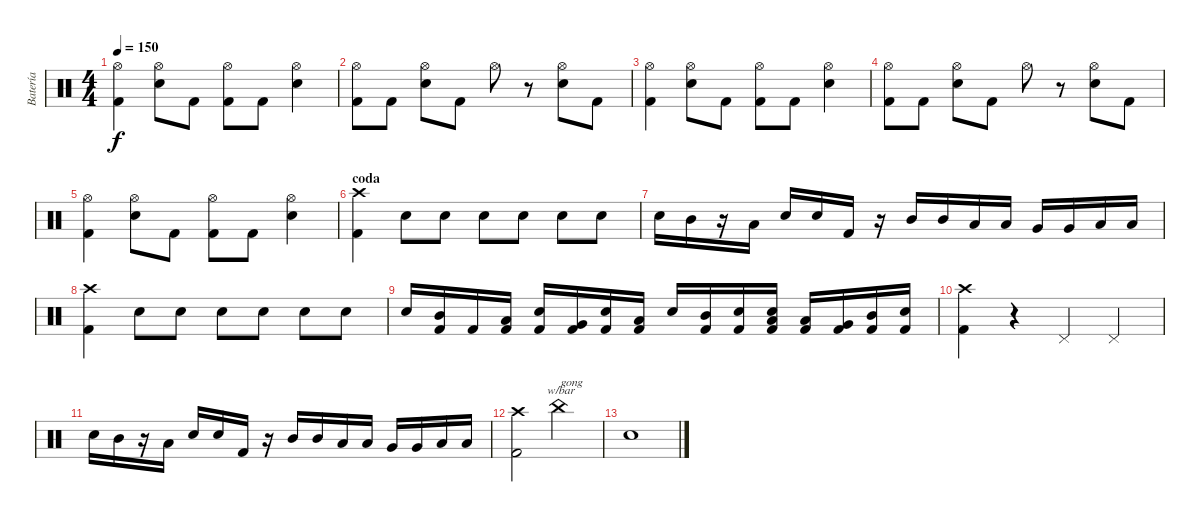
\track ("Batería" "Batería") {instrument percussion}
\staff {score}
\articulation defaults
\ts (4 4)
\tempo 150
\clef neutral
\ks c
("Hi-Hat (open)" "Kick (hit) 2").4{dy f} ("Hi-Hat (open)" "Electric Snare (hit)").8 "Kick (hit) 2".8 ("Hi-Hat (open)" "Kick (hit) 2").8 "Kick (hit) 2".8 ("Hi-Hat (open)" "Electric Snare (hit)").4 |
("Hi-Hat (open)" "Kick (hit) 2").8 "Kick (hit) 2".8 ("Hi-Hat (open)" "Electric Snare (hit)").8 "Kick (hit) 2".8 "Hi-Hat (open)".8 r.8 ("Hi-Hat (open)" "Electric Snare (hit)").8 "Kick (hit) 2".8 |
("Hi-Hat (open)" "Kick (hit) 2").4 ("Hi-Hat (open)" "Electric Snare (hit)").8 "Kick (hit) 2".8 ("Hi-Hat (open)" "Kick (hit) 2").8 "Kick (hit) 2".8 ("Hi-Hat (open)" "Electric Snare (hit)").4 |
("Hi-Hat (open)" "Kick (hit) 2").8 "Kick (hit) 2".8 ("Hi-Hat (open)" "Electric Snare (hit)").8 "Kick (hit) 2".8 "Hi-Hat (open)".8 r.8 ("Hi-Hat (open)" "Electric Snare (hit)").8 "Kick (hit) 2".8 |
("Hi-Hat (open)" "Kick (hit) 2").4 ("Hi-Hat (open)" "Electric Snare (hit)").8 "Kick (hit) 2".8 ("Hi-Hat (open)" "Kick (hit) 2").8 "Kick (hit) 2".8 ("Hi-Hat (open)" "Electric Snare (hit)").4 |
\section ("" "coda")
("Crash high (hit)" "Kick (hit) 2").4 "Electric Snare (hit)".8 "Electric Snare (hit)".8 "Electric Snare (hit)".8 "Electric Snare (hit)".8 "Electric Snare (hit)".8 "Electric Snare (hit)".8 |
"Electric Snare (hit)".16 "Mid Tom (hit)".16 r.16 "Low Tom (hit)".16 "Electric Snare (hit)".16 "Electric Snare (hit)".16 "Kick (hit) 2".16 r.16 "Mid Tom (hit)".16 "Mid Tom (hit)".16 "Low Tom (hit)".16 "Low Tom (hit)".16 "Very Low Tom (hit)".16 "Very Low Tom (hit)".16 "Low Floor Tom (hit)".16 "Low Floor Tom (hit)".16 |
("Crash high (hit)" "Kick (hit) 2").4 "Electric Snare (hit)".8 "Electric Snare (hit)".8 "Electric Snare (hit)".8 "Electric Snare (hit)".8 "Electric Snare (hit)".8 "Electric Snare (hit)".8 |
"Electric Snare (hit)".16 ("Kick (hit) 2" "Mid Tom (hit)").16 "Kick (hit) 2".16 ("Kick (hit) 2" "Low Tom (hit)").16 ("Kick (hit) 2" "Electric Snare (hit)").16 ("Kick (hit) 2" "Very Low Tom (hit)").16 ("Kick (hit) 2" "Electric Snare (hit)").16 ("Kick (hit) 2" "Low Tom (hit)").16 "Electric Snare (hit)".16 ("Kick (hit) 2" "Mid Tom (hit)").16 ("Kick (hit) 2" "Electric Snare (hit)").16 ("Kick (hit) 2" "Low Tom (hit)" "Electric Snare (hit)").16 ("Kick (hit) 2" "Low Tom (hit)").16 ("Kick (hit) 2" "Very Low Tom (hit)").16 ("Kick (hit) 2" "Mid Tom (hit)").16 ("Kick (hit) 2" "Electric Snare (hit)").16 |
("Crash high (hit)" "Kick (hit) 2").4 r.4 "Pedal Hi-Hat (hit)".4 "Pedal Hi-Hat (hit)".4 |
"Electric Snare (hit)".16 "Mid Tom (hit)".16 r.16 "Low Tom (hit)".16 "Electric Snare (hit)".16 "Electric Snare (hit)".16 "Kick (hit) 2".16 r.16 "Mid Tom (hit)".16 "Mid Tom (hit)".16 "Low Tom (hit)".16 "Low Tom (hit)".16 "Very Low Tom (hit)".16 "Very Low Tom (hit)".16 "Low Floor Tom (hit)".16 "Low Floor Tom (hit)".16 |
("Crash high (hit)" "Kick (hit) 2").2 "China (hit)".2{tbe (custom default 0 -24 16 -24 30 -24 32 -24 44 -24 60 -24) txt "gong"} |
"Snare (hit)"{t}.1
